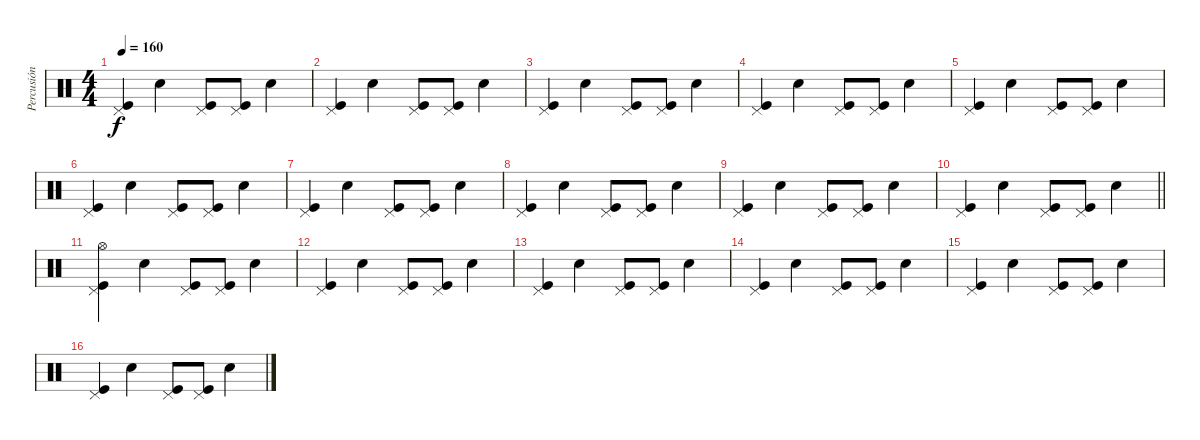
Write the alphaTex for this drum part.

\track ("Percusión" "Percusión") {instrument percussion}
\staff {score}
\articulation defaults
\ts (4 4)
\tempo 160
\clef neutral
\ks c
("Pedal Hi-Hat (hit)" "Kick (hit)").4{dy f} "Snare (hit) 2".4 ("Pedal Hi-Hat (hit)" "Kick (hit)").8 ("Pedal Hi-Hat (hit)" "Kick (hit)").8 "Snare (hit) 2".4 |
("Pedal Hi-Hat (hit)" "Kick (hit)").4 "Snare (hit) 2".4 ("Pedal Hi-Hat (hit)" "Kick (hit)").8 ("Pedal Hi-Hat (hit)" "Kick (hit)").8 "Snare (hit) 2".4 |
("Pedal Hi-Hat (hit)" "Kick (hit)").4 "Snare (hit) 2".4 ("Pedal Hi-Hat (hit)" "Kick (hit)").8 ("Pedal Hi-Hat (hit)" "Kick (hit)").8 "Snare (hit) 2".4 |
("Pedal Hi-Hat (hit)" "Kick (hit)").4 "Snare (hit) 2".4 ("Pedal Hi-Hat (hit)" "Kick (hit)").8 ("Pedal Hi-Hat (hit)" "Kick (hit)").8 "Snare (hit) 2".4 |
("Pedal Hi-Hat (hit)" "Kick (hit)").4 "Snare (hit) 2".4 ("Pedal Hi-Hat (hit)" "Kick (hit)").8 ("Pedal Hi-Hat (hit)" "Kick (hit)").8 "Snare (hit) 2".4 |
("Pedal Hi-Hat (hit)" "Kick (hit)").4 "Snare (hit) 2".4 ("Pedal Hi-Hat (hit)" "Kick (hit)").8 ("Pedal Hi-Hat (hit)" "Kick (hit)").8 "Snare (hit) 2".4 |
("Pedal Hi-Hat (hit)" "Kick (hit)").4 "Snare (hit) 2".4 ("Pedal Hi-Hat (hit)" "Kick (hit)").8 ("Pedal Hi-Hat (hit)" "Kick (hit)").8 "Snare (hit) 2".4 |
("Pedal Hi-Hat (hit)" "Kick (hit)").4 "Snare (hit) 2".4 ("Pedal Hi-Hat (hit)" "Kick (hit)").8 ("Pedal Hi-Hat (hit)" "Kick (hit)").8 "Snare (hit) 2".4 |
("Pedal Hi-Hat (hit)" "Kick (hit)").4 "Snare (hit) 2".4 ("Pedal Hi-Hat (hit)" "Kick (hit)").8 ("Pedal Hi-Hat (hit)" "Kick (hit)").8 "Snare (hit) 2".4 |
\barLineRight lightlight
("Pedal Hi-Hat (hit)" "Kick (hit)").4 "Snare (hit) 2".4 ("Pedal Hi-Hat (hit)" "Kick (hit)").8 ("Pedal Hi-Hat (hit)" "Kick (hit)").8 "Snare (hit) 2".4 |
("Pedal Hi-Hat (hit)" "Hi-Hat (open)" "Kick (hit)").4 "Snare (hit) 2".4 ("Pedal Hi-Hat (hit)" "Kick (hit)").8 ("Pedal Hi-Hat (hit)" "Kick (hit)").8 "Snare (hit) 2".4 |
("Pedal Hi-Hat (hit)" "Kick (hit)").4 "Snare (hit) 2".4 ("Pedal Hi-Hat (hit)" "Kick (hit)").8 ("Pedal Hi-Hat (hit)" "Kick (hit)").8 "Snare (hit) 2".4 |
("Pedal Hi-Hat (hit)" "Kick (hit)").4 "Snare (hit) 2".4 ("Pedal Hi-Hat (hit)" "Kick (hit)").8 ("Pedal Hi-Hat (hit)" "Kick (hit)").8 "Snare (hit) 2".4 |
("Pedal Hi-Hat (hit)" "Kick (hit)").4 "Snare (hit) 2".4 ("Pedal Hi-Hat (hit)" "Kick (hit)").8 ("Pedal Hi-Hat (hit)" "Kick (hit)").8 "Snare (hit) 2".4 |
("Pedal Hi-Hat (hit)" "Kick (hit)").4 "Snare (hit) 2".4 ("Pedal Hi-Hat (hit)" "Kick (hit)").8 ("Pedal Hi-Hat (hit)" "Kick (hit)").8 "Snare (hit) 2".4 |
("Pedal Hi-Hat (hit)" "Kick (hit)").4 "Snare (hit) 2".4 ("Pedal Hi-Hat (hit)" "Kick (hit)").8 ("Pedal Hi-Hat (hit)" "Kick (hit)").8 "Snare (hit) 2".4
